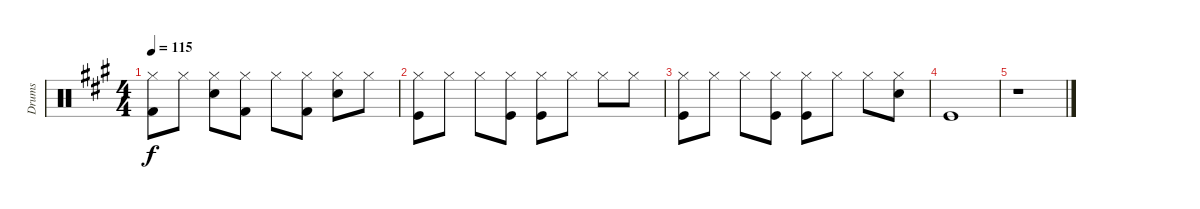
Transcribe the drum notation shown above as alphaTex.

\track ("Drums" "Drums") {instrument percussion}
\staff {score}
\articulation defaults
\ts (4 4)
\tempo 115
\clef neutral
\ks f#minor
("Kick (hit) 2" "Hi-Hat (closed)").8{dy f} "Hi-Hat (closed)".8 ("Snare (hit) 2" "Hi-Hat (closed)").8 ("Kick (hit) 2" "Hi-Hat (closed)").8 "Hi-Hat (closed)".8 ("Kick (hit) 2" "Hi-Hat (closed)").8 ("Snare (hit) 2" "Hi-Hat (closed)").8 "Hi-Hat (closed)".8 |
("Hi-Hat (closed)" "Kick (hit)").8 "Hi-Hat (closed)".8 "Hi-Hat (closed)".8 ("Kick (hit)" "Hi-Hat (closed)").8 ("Hi-Hat (closed)" "Kick (hit)").8 "Hi-Hat (closed)".8 "Hi-Hat (closed)".8 "Hi-Hat (closed)".8 |
("Hi-Hat (closed)" "Kick (hit)").8 "Hi-Hat (closed)".8 "Hi-Hat (closed)".8 ("Kick (hit)" "Hi-Hat (closed)").8 ("Hi-Hat (closed)" "Kick (hit)").8 "Hi-Hat (closed)".8 "Hi-Hat (closed)".8 ("Hi-Hat (closed)" "Snare (hit) 2").8 |
"Kick (hit)".1 |
r.1
